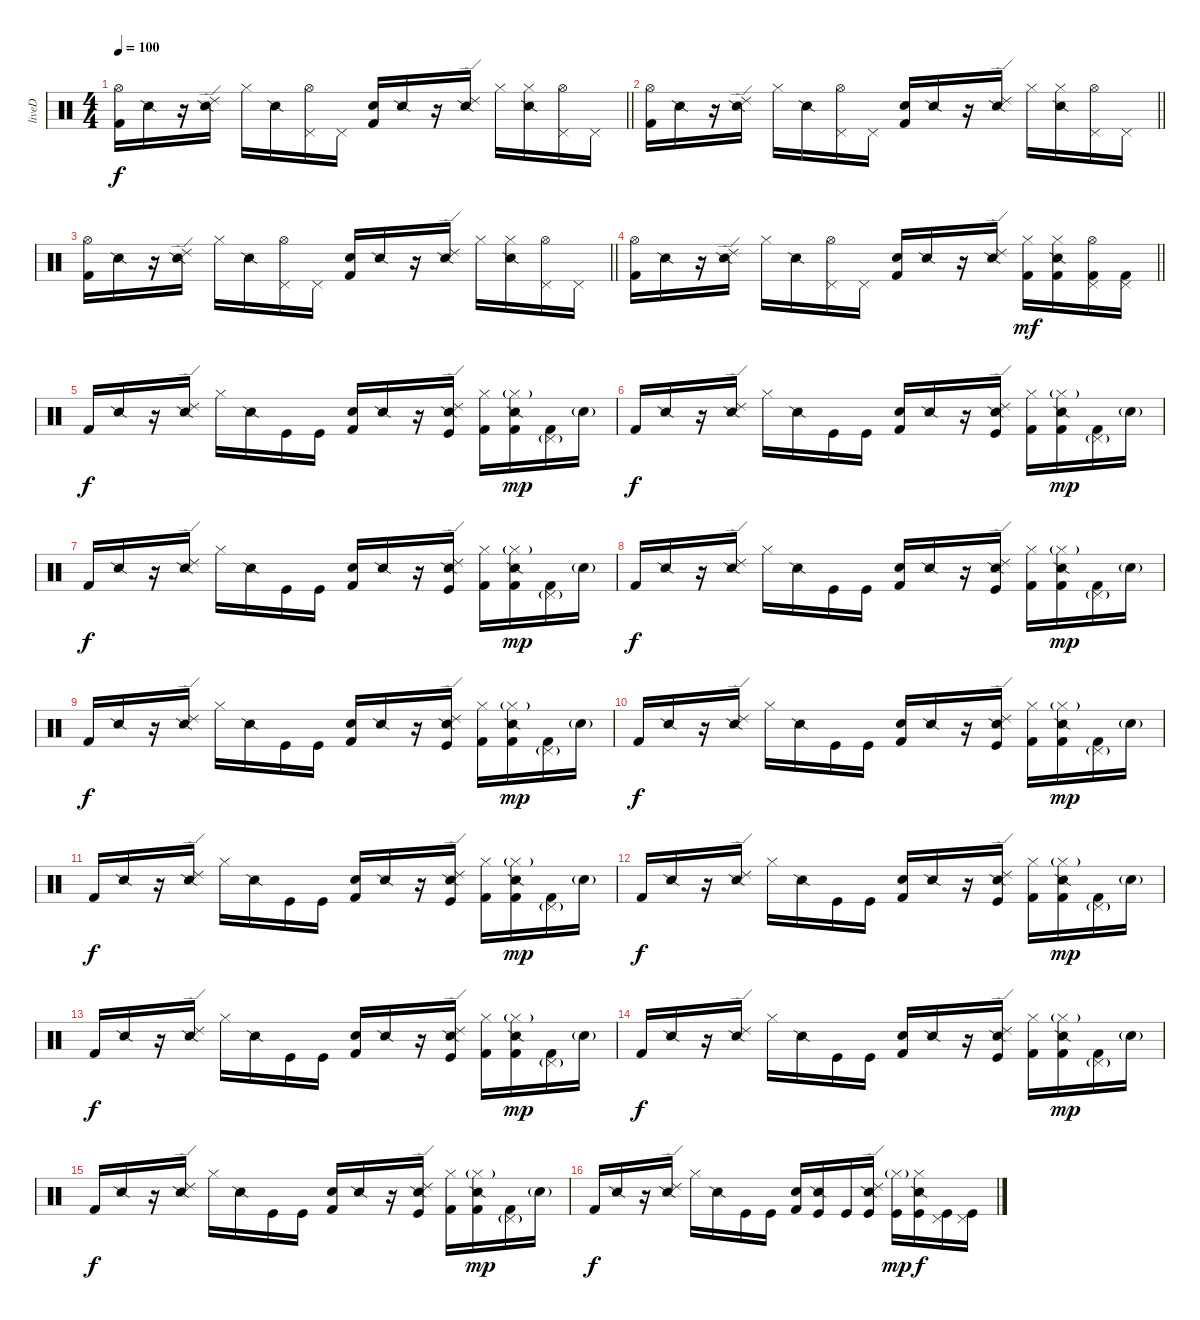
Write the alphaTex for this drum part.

\track ("liveD" "liveD") {instrument percussion}
\staff {score}
\articulation defaults
\ts (4 4)
\tempo 100
\clef neutral
\barLineRight lightlight
\ks c
("Hi-Hat (open)" "Kick (hit) 2").16{dy f} "Snare (side stick) 2".16 r.16 ("Snare (side stick) 2" "Ride (edge) 2").16 "Hi-Hat (closed)".16 "Snare (side stick) 2".16 ("Pedal Hi-Hat (hit)" "Hi-Hat (open)").16 "Pedal Hi-Hat (hit)".16 ("Snare (hit) 2" "Kick (hit) 2").16 "Snare (side stick) 2".16 r.16 ("Snare (side stick) 2" "Ride (edge) 2").16 "Hi-Hat (closed)".16 ("Snare (side stick) 2" "Hi-Hat (closed)").16 ("Pedal Hi-Hat (hit)" "Hi-Hat (open)").16 "Pedal Hi-Hat (hit)".16 |
\barLineRight lightlight
("Hi-Hat (open)" "Kick (hit) 2").16 "Snare (side stick) 2".16 r.16 ("Snare (side stick) 2" "Ride (edge) 2").16 "Hi-Hat (closed)".16 "Snare (side stick) 2".16 ("Pedal Hi-Hat (hit)" "Hi-Hat (open)").16 "Pedal Hi-Hat (hit)".16 ("Snare (hit) 2" "Kick (hit) 2").16 "Snare (side stick) 2".16 r.16 ("Snare (side stick) 2" "Ride (edge) 2").16 "Hi-Hat (closed)".16 ("Snare (side stick) 2" "Hi-Hat (closed)").16 ("Pedal Hi-Hat (hit)" "Hi-Hat (open)").16 "Pedal Hi-Hat (hit)".16 |
\barLineRight lightlight
("Hi-Hat (open)" "Kick (hit) 2").16 "Snare (side stick) 2".16 r.16 ("Snare (side stick) 2" "Ride (edge) 2").16 "Hi-Hat (closed)".16 "Snare (side stick) 2".16 ("Pedal Hi-Hat (hit)" "Hi-Hat (open)").16 "Pedal Hi-Hat (hit)".16 ("Snare (hit) 2" "Kick (hit) 2").16 "Snare (side stick) 2".16 r.16 ("Snare (side stick) 2" "Ride (edge) 2").16 "Hi-Hat (closed)".16 ("Snare (side stick) 2" "Hi-Hat (closed)").16 ("Pedal Hi-Hat (hit)" "Hi-Hat (open)").16 "Pedal Hi-Hat (hit)".16 |
\barLineRight lightlight
("Hi-Hat (open)" "Kick (hit) 2").16 "Snare (side stick) 2".16 r.16 ("Snare (side stick) 2" "Ride (edge) 2").16 "Hi-Hat (closed)".16 "Snare (side stick) 2".16 ("Pedal Hi-Hat (hit)" "Hi-Hat (open)").16 "Pedal Hi-Hat (hit)".16 ("Snare (hit) 2" "Kick (hit) 2").16 "Snare (side stick) 2".16 r.16 ("Snare (side stick) 2" "Ride (edge) 2").16 ("Hi-Hat (closed)" "Kick (hit) 2").16{dy mf} ("Snare (side stick) 2" "Hi-Hat (closed)" "Kick (hit) 2").16 ("Pedal Hi-Hat (hit)" "Hi-Hat (open)" "Kick (hit) 2").16 ("Pedal Hi-Hat (hit)" "Kick (hit) 2").16 |
\section ("" "")
"Kick (hit) 2".16{dy f} "Snare (side stick) 2".16 r.16 ("Snare (side stick) 2" "Ride (edge) 2").16 "Hi-Hat (closed)".16 "Snare (side stick) 2".16 "Kick (hit)".16 "Kick (hit)".16 ("Electric Snare (hit)" "Kick (hit) 2").16 "Snare (side stick) 2".16 r.16 ("Snare (side stick) 2" "Ride (edge) 2" "Kick (hit)").16 ("Hi-Hat (closed)" "Kick (hit) 2").16 ("Snare (side stick) 2" "Hi-Hat (closed)"{g} "Kick (hit) 2").16{dy mp} ("Pedal Hi-Hat (hit)"{g} "Kick (hit) 2").16 "Electric Snare (hit)"{g}.16 |
"Kick (hit) 2".16{dy f} "Snare (side stick) 2".16 r.16 ("Snare (side stick) 2" "Ride (edge) 2").16 "Hi-Hat (closed)".16 "Snare (side stick) 2".16 "Kick (hit)".16 "Kick (hit)".16 ("Electric Snare (hit)" "Kick (hit) 2").16 "Snare (side stick) 2".16 r.16 ("Snare (side stick) 2" "Ride (edge) 2" "Kick (hit)").16 ("Hi-Hat (closed)" "Kick (hit) 2").16 ("Snare (side stick) 2" "Hi-Hat (closed)"{g} "Kick (hit) 2").16{dy mp} ("Pedal Hi-Hat (hit)"{g} "Kick (hit) 2").16 "Electric Snare (hit)"{g}.16 |
"Kick (hit) 2".16{dy f} "Snare (side stick) 2".16 r.16 ("Snare (side stick) 2" "Ride (edge) 2").16 "Hi-Hat (closed)".16 "Snare (side stick) 2".16 "Kick (hit)".16 "Kick (hit)".16 ("Electric Snare (hit)" "Kick (hit) 2").16 "Snare (side stick) 2".16 r.16 ("Snare (side stick) 2" "Ride (edge) 2" "Kick (hit)").16 ("Hi-Hat (closed)" "Kick (hit) 2").16 ("Snare (side stick) 2" "Hi-Hat (closed)"{g} "Kick (hit) 2").16{dy mp} ("Pedal Hi-Hat (hit)"{g} "Kick (hit) 2").16 "Electric Snare (hit)"{g}.16 |
"Kick (hit) 2".16{dy f} "Snare (side stick) 2".16 r.16 ("Snare (side stick) 2" "Ride (edge) 2").16 "Hi-Hat (closed)".16 "Snare (side stick) 2".16 "Kick (hit)".16 "Kick (hit)".16 ("Electric Snare (hit)" "Kick (hit) 2").16 "Snare (side stick) 2".16 r.16 ("Snare (side stick) 2" "Ride (edge) 2" "Kick (hit)").16 ("Hi-Hat (closed)" "Kick (hit) 2").16 ("Snare (side stick) 2" "Hi-Hat (closed)"{g} "Kick (hit) 2").16{dy mp} ("Pedal Hi-Hat (hit)"{g} "Kick (hit) 2").16 "Electric Snare (hit)"{g}.16 |
"Kick (hit) 2".16{dy f} "Snare (side stick) 2".16 r.16 ("Snare (side stick) 2" "Ride (edge) 2").16 "Hi-Hat (closed)".16 "Snare (side stick) 2".16 "Kick (hit)".16 "Kick (hit)".16 ("Electric Snare (hit)" "Kick (hit) 2").16 "Snare (side stick) 2".16 r.16 ("Snare (side stick) 2" "Ride (edge) 2" "Kick (hit)").16 ("Hi-Hat (closed)" "Kick (hit) 2").16 ("Snare (side stick) 2" "Hi-Hat (closed)"{g} "Kick (hit) 2").16{dy mp} ("Pedal Hi-Hat (hit)"{g} "Kick (hit) 2").16 "Electric Snare (hit)"{g}.16 |
"Kick (hit) 2".16{dy f} "Snare (side stick) 2".16 r.16 ("Snare (side stick) 2" "Ride (edge) 2").16 "Hi-Hat (closed)".16 "Snare (side stick) 2".16 "Kick (hit)".16 "Kick (hit)".16 ("Electric Snare (hit)" "Kick (hit) 2").16 "Snare (side stick) 2".16 r.16 ("Snare (side stick) 2" "Ride (edge) 2" "Kick (hit)").16 ("Hi-Hat (closed)" "Kick (hit) 2").16 ("Snare (side stick) 2" "Hi-Hat (closed)"{g} "Kick (hit) 2").16{dy mp} ("Pedal Hi-Hat (hit)"{g} "Kick (hit) 2").16 "Electric Snare (hit)"{g}.16 |
"Kick (hit) 2".16{dy f} "Snare (side stick) 2".16 r.16 ("Snare (side stick) 2" "Ride (edge) 2").16 "Hi-Hat (closed)".16 "Snare (side stick) 2".16 "Kick (hit)".16 "Kick (hit)".16 ("Electric Snare (hit)" "Kick (hit) 2").16 "Snare (side stick) 2".16 r.16 ("Snare (side stick) 2" "Ride (edge) 2" "Kick (hit)").16 ("Hi-Hat (closed)" "Kick (hit) 2").16 ("Snare (side stick) 2" "Hi-Hat (closed)"{g} "Kick (hit) 2").16{dy mp} ("Pedal Hi-Hat (hit)"{g} "Kick (hit) 2").16 "Electric Snare (hit)"{g}.16 |
"Kick (hit) 2".16{dy f} "Snare (side stick) 2".16 r.16 ("Snare (side stick) 2" "Ride (edge) 2").16 "Hi-Hat (closed)".16 "Snare (side stick) 2".16 "Kick (hit)".16 "Kick (hit)".16 ("Electric Snare (hit)" "Kick (hit) 2").16 "Snare (side stick) 2".16 r.16 ("Snare (side stick) 2" "Ride (edge) 2" "Kick (hit)").16 ("Hi-Hat (closed)" "Kick (hit) 2").16 ("Snare (side stick) 2" "Hi-Hat (closed)"{g} "Kick (hit) 2").16{dy mp} ("Pedal Hi-Hat (hit)"{g} "Kick (hit) 2").16 "Electric Snare (hit)"{g}.16 |
"Kick (hit) 2".16{dy f} "Snare (side stick) 2".16 r.16 ("Snare (side stick) 2" "Ride (edge) 2").16 "Hi-Hat (closed)".16 "Snare (side stick) 2".16 "Kick (hit)".16 "Kick (hit)".16 ("Electric Snare (hit)" "Kick (hit) 2").16 "Snare (side stick) 2".16 r.16 ("Snare (side stick) 2" "Ride (edge) 2" "Kick (hit)").16 ("Hi-Hat (closed)" "Kick (hit) 2").16 ("Snare (side stick) 2" "Hi-Hat (closed)"{g} "Kick (hit) 2").16{dy mp} ("Pedal Hi-Hat (hit)"{g} "Kick (hit) 2").16 "Electric Snare (hit)"{g}.16 |
"Kick (hit) 2".16{dy f} "Snare (side stick) 2".16 r.16 ("Snare (side stick) 2" "Ride (edge) 2").16 "Hi-Hat (closed)".16 "Snare (side stick) 2".16 "Kick (hit)".16 "Kick (hit)".16 ("Electric Snare (hit)" "Kick (hit) 2").16 "Snare (side stick) 2".16 r.16 ("Snare (side stick) 2" "Ride (edge) 2" "Kick (hit)").16 ("Hi-Hat (closed)" "Kick (hit) 2").16 ("Snare (side stick) 2" "Hi-Hat (closed)"{g} "Kick (hit) 2").16{dy mp} ("Pedal Hi-Hat (hit)"{g} "Kick (hit) 2").16 "Electric Snare (hit)"{g}.16 |
"Kick (hit) 2".16{dy f} "Snare (side stick) 2".16 r.16 ("Snare (side stick) 2" "Ride (edge) 2").16 "Hi-Hat (closed)".16 "Snare (side stick) 2".16 "Kick (hit)".16 "Kick (hit)".16 ("Electric Snare (hit)" "Kick (hit) 2").16 "Snare (side stick) 2".16 r.16 ("Snare (side stick) 2" "Ride (edge) 2" "Kick (hit)").16 ("Hi-Hat (closed)" "Kick (hit) 2").16 ("Snare (side stick) 2" "Hi-Hat (closed)"{g} "Kick (hit) 2").16{dy mp} ("Pedal Hi-Hat (hit)"{g} "Kick (hit) 2").16 "Electric Snare (hit)"{g}.16 |
"Kick (hit) 2".16{dy f} "Snare (side stick) 2".16 r.16 ("Snare (side stick) 2" "Ride (edge) 2").16 "Hi-Hat (closed)".16 "Snare (side stick) 2".16 "Kick (hit)".16 "Kick (hit)".16 ("Electric Snare (hit)" "Kick (hit) 2").16 ("Snare (side stick) 2" "Kick (hit)").16 "Kick (hit)".16 ("Snare (side stick) 2" "Ride (edge) 2" "Kick (hit)").16 ("Hi-Hat (closed)"{g} "Kick (hit)").16{dy mp} ("Snare (side stick) 2" "Hi-Hat (closed)" "Kick (hit)").16{dy f} ("Pedal Hi-Hat (hit)" "Kick (hit)").16 ("Pedal Hi-Hat (hit)" "Kick (hit)").16
